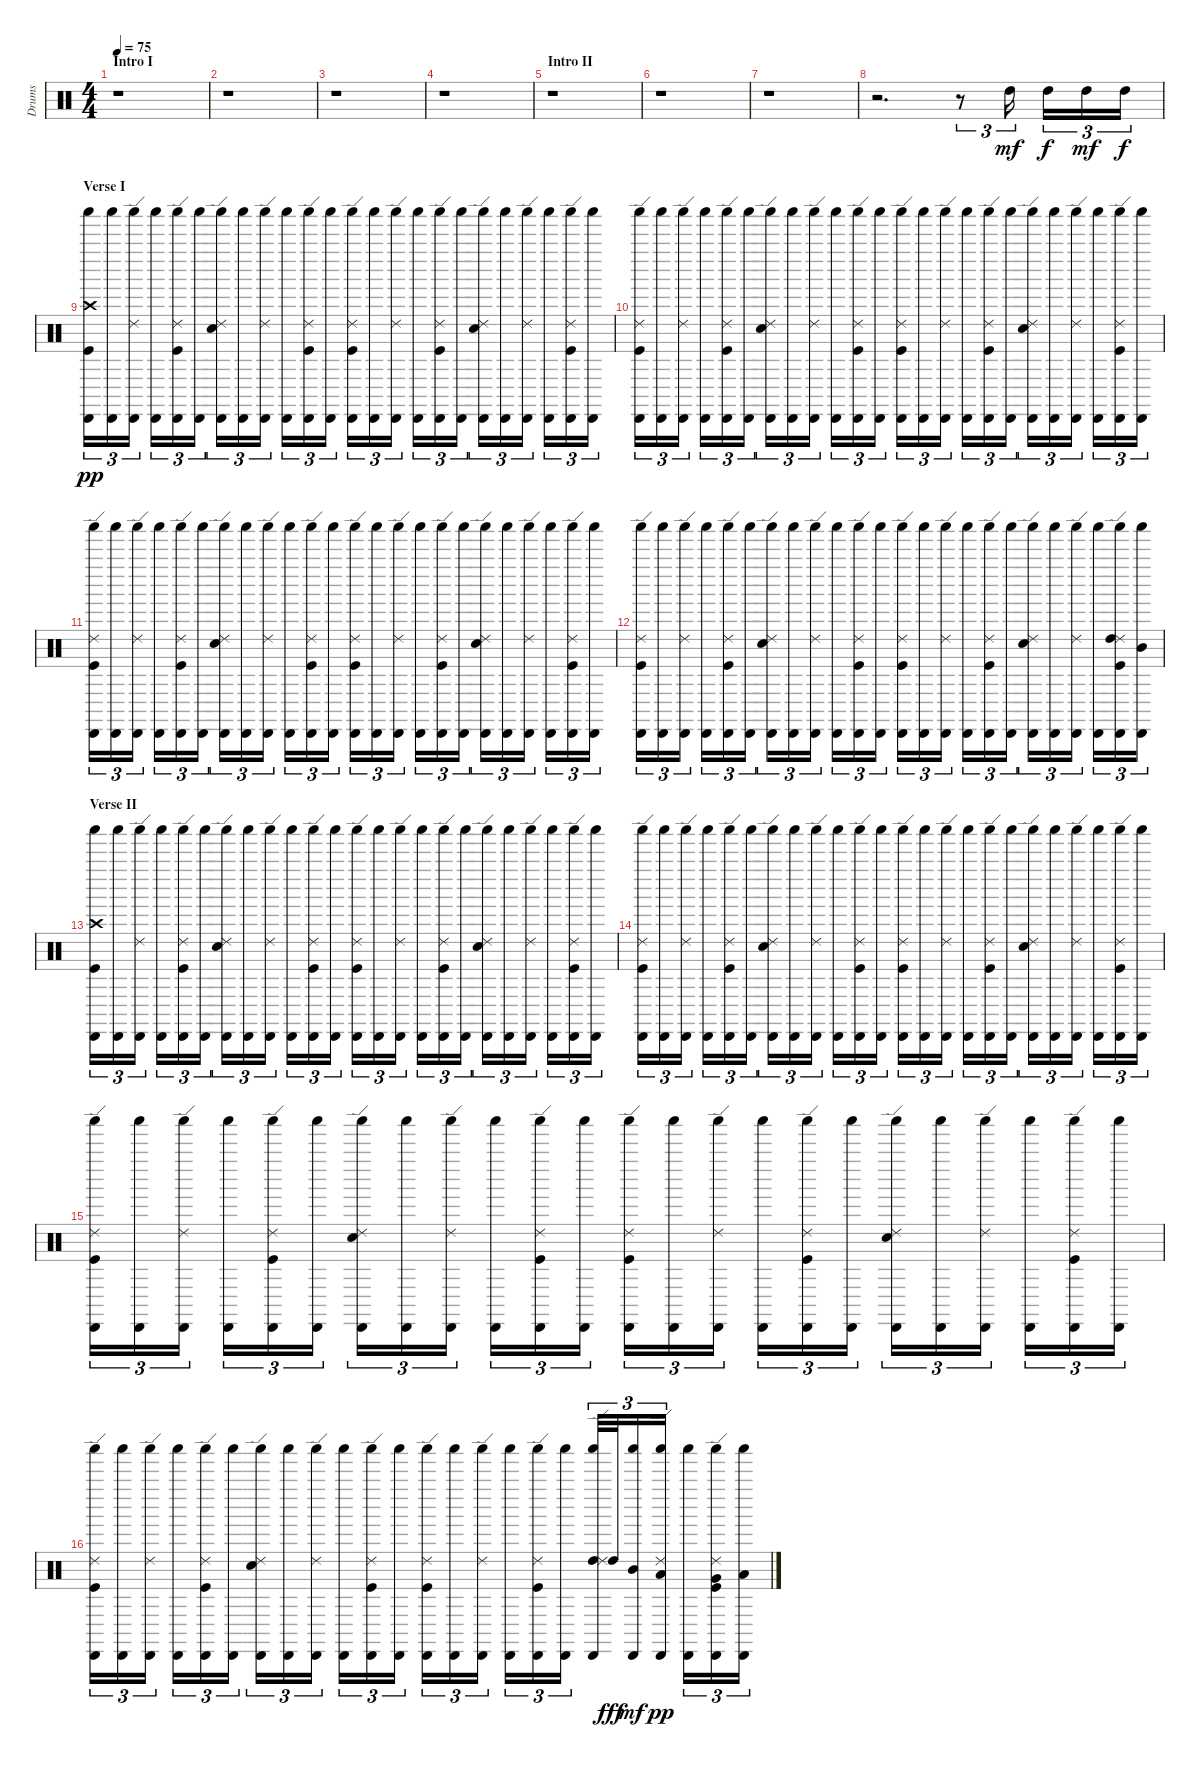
\track ("Drums" "Drums") {instrument percussion}
\staff {score}
\articulation defaults
\ts (4 4)
\section ("" "Intro I")
\tempo 75
\clef neutral
\ks c
r.1{dy mf} |
r.1 |
r.1 |
r.1 |
\section ("" "Intro II")
r.1 |
r.1 |
r.1 |
r.2{d} r.8{tu (3 2)} "High Tom (hit)".16{tu (3 2)} "High Tom (hit)".16{tu (3 2) dy f} "High Tom (hit)".16{tu (3 2) dy mf} "High Tom (hit)".16{tu (3 2) dy f} |
\section ("" "Verse I")
("Crash high (hit)" "Kick (hit)" "Cabasa (hit)" "Shaker (hit)").16{tu (3 2) dy pp} ("Cabasa (hit)" "Shaker (hit)").16{tu (3 2)} ("Ride (edge) 2" "Cabasa (hit)" "Shaker (hit)").16{tu (3 2)} ("Cabasa (hit)" "Shaker (hit)").16{tu (3 2)} ("Cabasa (hit)" "Kick (hit)" "Ride (edge) 2" "Shaker (hit)").16{tu (3 2)} ("Cabasa (hit)" "Shaker (hit)").16{tu (3 2)} ("Cabasa (hit)" "Ride (edge) 2" "Electric Snare (hit)" "Shaker (hit)").16{tu (3 2)} ("Cabasa (hit)" "Shaker (hit)").16{tu (3 2)} ("Ride (edge) 2" "Cabasa (hit)" "Shaker (hit)").16{tu (3 2)} ("Cabasa (hit)" "Shaker (hit)").16{tu (3 2)} ("Cabasa (hit)" "Ride (edge) 2" "Kick (hit)" "Shaker (hit)").16{tu (3 2)} ("Cabasa (hit)" "Shaker (hit)").16{tu (3 2)} ("Kick (hit)" "Ride (edge) 2" "Cabasa (hit)" "Shaker (hit)").16{tu (3 2)} ("Cabasa (hit)" "Shaker (hit)").16{tu (3 2)} ("Cabasa (hit)" "Ride (edge) 2" "Shaker (hit)").16{tu (3 2)} ("Cabasa (hit)" "Shaker (hit)").16{tu (3 2)} ("Kick (hit)" "Cabasa (hit)" "Ride (edge) 2" "Shaker (hit)").16{tu (3 2)} ("Cabasa (hit)" "Shaker (hit)").16{tu (3 2)} ("Electric Snare (hit)" "Cabasa (hit)" "Ride (edge) 2" "Shaker (hit)").16{tu (3 2)} ("Cabasa (hit)" "Shaker (hit)").16{tu (3 2)} ("Cabasa (hit)" "Ride (edge) 2" "Shaker (hit)").16{tu (3 2)} ("Cabasa (hit)" "Shaker (hit)").16{tu (3 2)} ("Cabasa (hit)" "Kick (hit)" "Ride (edge) 2" "Shaker (hit)").16{tu (3 2)} ("Cabasa (hit)" "Shaker (hit)").16{tu (3 2)} |
("Ride (edge) 2" "Kick (hit)" "Cabasa (hit)" "Shaker (hit)").16{tu (3 2)} ("Cabasa (hit)" "Shaker (hit)").16{tu (3 2)} ("Ride (edge) 2" "Cabasa (hit)" "Shaker (hit)").16{tu (3 2)} ("Cabasa (hit)" "Shaker (hit)").16{tu (3 2)} ("Cabasa (hit)" "Kick (hit)" "Ride (edge) 2" "Shaker (hit)").16{tu (3 2)} ("Cabasa (hit)" "Shaker (hit)").16{tu (3 2)} ("Cabasa (hit)" "Ride (edge) 2" "Electric Snare (hit)" "Shaker (hit)").16{tu (3 2)} ("Cabasa (hit)" "Shaker (hit)").16{tu (3 2)} ("Ride (edge) 2" "Cabasa (hit)" "Shaker (hit)").16{tu (3 2)} ("Cabasa (hit)" "Shaker (hit)").16{tu (3 2)} ("Cabasa (hit)" "Ride (edge) 2" "Kick (hit)" "Shaker (hit)").16{tu (3 2)} ("Cabasa (hit)" "Shaker (hit)").16{tu (3 2)} ("Kick (hit)" "Ride (edge) 2" "Cabasa (hit)" "Shaker (hit)").16{tu (3 2)} ("Cabasa (hit)" "Shaker (hit)").16{tu (3 2)} ("Cabasa (hit)" "Ride (edge) 2" "Shaker (hit)").16{tu (3 2)} ("Cabasa (hit)" "Shaker (hit)").16{tu (3 2)} ("Kick (hit)" "Cabasa (hit)" "Ride (edge) 2" "Shaker (hit)").16{tu (3 2)} ("Cabasa (hit)" "Shaker (hit)").16{tu (3 2)} ("Electric Snare (hit)" "Cabasa (hit)" "Ride (edge) 2" "Shaker (hit)").16{tu (3 2)} ("Cabasa (hit)" "Shaker (hit)").16{tu (3 2)} ("Cabasa (hit)" "Ride (edge) 2" "Shaker (hit)").16{tu (3 2)} ("Cabasa (hit)" "Shaker (hit)").16{tu (3 2)} ("Cabasa (hit)" "Kick (hit)" "Ride (edge) 2" "Shaker (hit)").16{tu (3 2)} ("Cabasa (hit)" "Shaker (hit)").16{tu (3 2)} |
("Ride (edge) 2" "Kick (hit)" "Cabasa (hit)" "Shaker (hit)").16{tu (3 2)} ("Cabasa (hit)" "Shaker (hit)").16{tu (3 2)} ("Ride (edge) 2" "Cabasa (hit)" "Shaker (hit)").16{tu (3 2)} ("Cabasa (hit)" "Shaker (hit)").16{tu (3 2)} ("Cabasa (hit)" "Kick (hit)" "Ride (edge) 2" "Shaker (hit)").16{tu (3 2)} ("Cabasa (hit)" "Shaker (hit)").16{tu (3 2)} ("Cabasa (hit)" "Ride (edge) 2" "Electric Snare (hit)" "Shaker (hit)").16{tu (3 2)} ("Cabasa (hit)" "Shaker (hit)").16{tu (3 2)} ("Ride (edge) 2" "Cabasa (hit)" "Shaker (hit)").16{tu (3 2)} ("Cabasa (hit)" "Shaker (hit)").16{tu (3 2)} ("Cabasa (hit)" "Ride (edge) 2" "Kick (hit)" "Shaker (hit)").16{tu (3 2)} ("Cabasa (hit)" "Shaker (hit)").16{tu (3 2)} ("Kick (hit)" "Ride (edge) 2" "Cabasa (hit)" "Shaker (hit)").16{tu (3 2)} ("Cabasa (hit)" "Shaker (hit)").16{tu (3 2)} ("Cabasa (hit)" "Ride (edge) 2" "Shaker (hit)").16{tu (3 2)} ("Cabasa (hit)" "Shaker (hit)").16{tu (3 2)} ("Kick (hit)" "Cabasa (hit)" "Ride (edge) 2" "Shaker (hit)").16{tu (3 2)} ("Cabasa (hit)" "Shaker (hit)").16{tu (3 2)} ("Electric Snare (hit)" "Cabasa (hit)" "Ride (edge) 2" "Shaker (hit)").16{tu (3 2)} ("Cabasa (hit)" "Shaker (hit)").16{tu (3 2)} ("Cabasa (hit)" "Ride (edge) 2" "Shaker (hit)").16{tu (3 2)} ("Cabasa (hit)" "Shaker (hit)").16{tu (3 2)} ("Cabasa (hit)" "Kick (hit)" "Ride (edge) 2" "Shaker (hit)").16{tu (3 2)} ("Cabasa (hit)" "Shaker (hit)").16{tu (3 2)} |
("Ride (edge) 2" "Kick (hit)" "Cabasa (hit)" "Shaker (hit)").16{tu (3 2)} ("Cabasa (hit)" "Shaker (hit)").16{tu (3 2)} ("Ride (edge) 2" "Cabasa (hit)" "Shaker (hit)").16{tu (3 2)} ("Cabasa (hit)" "Shaker (hit)").16{tu (3 2)} ("Cabasa (hit)" "Kick (hit)" "Ride (edge) 2" "Shaker (hit)").16{tu (3 2)} ("Cabasa (hit)" "Shaker (hit)").16{tu (3 2)} ("Cabasa (hit)" "Ride (edge) 2" "Electric Snare (hit)" "Shaker (hit)").16{tu (3 2)} ("Cabasa (hit)" "Shaker (hit)").16{tu (3 2)} ("Ride (edge) 2" "Cabasa (hit)" "Shaker (hit)").16{tu (3 2)} ("Cabasa (hit)" "Shaker (hit)").16{tu (3 2)} ("Cabasa (hit)" "Ride (edge) 2" "Kick (hit)" "Shaker (hit)").16{tu (3 2)} ("Cabasa (hit)" "Shaker (hit)").16{tu (3 2)} ("Kick (hit)" "Ride (edge) 2" "Cabasa (hit)" "Shaker (hit)").16{tu (3 2)} ("Cabasa (hit)" "Shaker (hit)").16{tu (3 2)} ("Cabasa (hit)" "Ride (edge) 2" "Shaker (hit)").16{tu (3 2)} ("Cabasa (hit)" "Shaker (hit)").16{tu (3 2)} ("Kick (hit)" "Cabasa (hit)" "Ride (edge) 2" "Shaker (hit)").16{tu (3 2)} ("Cabasa (hit)" "Shaker (hit)").16{tu (3 2)} ("Electric Snare (hit)" "Cabasa (hit)" "Ride (edge) 2" "Shaker (hit)").16{tu (3 2)} ("Cabasa (hit)" "Shaker (hit)").16{tu (3 2)} ("Cabasa (hit)" "Ride (edge) 2" "Shaker (hit)").16{tu (3 2)} ("Cabasa (hit)" "Shaker (hit)").16{tu (3 2)} ("Cabasa (hit)" "Kick (hit)" "Ride (edge) 2" "Shaker (hit)" "High Tom (hit)").16{tu (3 2)} ("Cabasa (hit)" "Shaker (hit)" "Mid Tom (hit)").16{tu (3 2)} |
\section ("" "Verse II")
("Crash high (hit)" "Kick (hit)" "Cabasa (hit)" "Shaker (hit)").16{tu (3 2)} ("Cabasa (hit)" "Shaker (hit)").16{tu (3 2)} ("Ride (edge) 2" "Cabasa (hit)" "Shaker (hit)").16{tu (3 2)} ("Cabasa (hit)" "Shaker (hit)").16{tu (3 2)} ("Cabasa (hit)" "Kick (hit)" "Ride (edge) 2" "Shaker (hit)").16{tu (3 2)} ("Cabasa (hit)" "Shaker (hit)").16{tu (3 2)} ("Cabasa (hit)" "Ride (edge) 2" "Electric Snare (hit)" "Shaker (hit)").16{tu (3 2)} ("Cabasa (hit)" "Shaker (hit)").16{tu (3 2)} ("Ride (edge) 2" "Cabasa (hit)" "Shaker (hit)").16{tu (3 2)} ("Cabasa (hit)" "Shaker (hit)").16{tu (3 2)} ("Cabasa (hit)" "Ride (edge) 2" "Kick (hit)" "Shaker (hit)").16{tu (3 2)} ("Cabasa (hit)" "Shaker (hit)").16{tu (3 2)} ("Kick (hit)" "Ride (edge) 2" "Cabasa (hit)" "Shaker (hit)").16{tu (3 2)} ("Cabasa (hit)" "Shaker (hit)").16{tu (3 2)} ("Cabasa (hit)" "Ride (edge) 2" "Shaker (hit)").16{tu (3 2)} ("Cabasa (hit)" "Shaker (hit)").16{tu (3 2)} ("Kick (hit)" "Cabasa (hit)" "Ride (edge) 2" "Shaker (hit)").16{tu (3 2)} ("Cabasa (hit)" "Shaker (hit)").16{tu (3 2)} ("Electric Snare (hit)" "Cabasa (hit)" "Ride (edge) 2" "Shaker (hit)").16{tu (3 2)} ("Cabasa (hit)" "Shaker (hit)").16{tu (3 2)} ("Cabasa (hit)" "Ride (edge) 2" "Shaker (hit)").16{tu (3 2)} ("Cabasa (hit)" "Shaker (hit)").16{tu (3 2)} ("Cabasa (hit)" "Kick (hit)" "Ride (edge) 2" "Shaker (hit)").16{tu (3 2)} ("Cabasa (hit)" "Shaker (hit)").16{tu (3 2)} |
("Ride (edge) 2" "Kick (hit)" "Cabasa (hit)" "Shaker (hit)").16{tu (3 2)} ("Cabasa (hit)" "Shaker (hit)").16{tu (3 2)} ("Ride (edge) 2" "Cabasa (hit)" "Shaker (hit)").16{tu (3 2)} ("Cabasa (hit)" "Shaker (hit)").16{tu (3 2)} ("Cabasa (hit)" "Kick (hit)" "Ride (edge) 2" "Shaker (hit)").16{tu (3 2)} ("Cabasa (hit)" "Shaker (hit)").16{tu (3 2)} ("Cabasa (hit)" "Ride (edge) 2" "Electric Snare (hit)" "Shaker (hit)").16{tu (3 2)} ("Cabasa (hit)" "Shaker (hit)").16{tu (3 2)} ("Ride (edge) 2" "Cabasa (hit)" "Shaker (hit)").16{tu (3 2)} ("Cabasa (hit)" "Shaker (hit)").16{tu (3 2)} ("Cabasa (hit)" "Ride (edge) 2" "Kick (hit)" "Shaker (hit)").16{tu (3 2)} ("Cabasa (hit)" "Shaker (hit)").16{tu (3 2)} ("Kick (hit)" "Ride (edge) 2" "Cabasa (hit)" "Shaker (hit)").16{tu (3 2)} ("Cabasa (hit)" "Shaker (hit)").16{tu (3 2)} ("Cabasa (hit)" "Ride (edge) 2" "Shaker (hit)").16{tu (3 2)} ("Cabasa (hit)" "Shaker (hit)").16{tu (3 2)} ("Kick (hit)" "Cabasa (hit)" "Ride (edge) 2" "Shaker (hit)").16{tu (3 2)} ("Cabasa (hit)" "Shaker (hit)").16{tu (3 2)} ("Electric Snare (hit)" "Cabasa (hit)" "Ride (edge) 2" "Shaker (hit)").16{tu (3 2)} ("Cabasa (hit)" "Shaker (hit)").16{tu (3 2)} ("Cabasa (hit)" "Ride (edge) 2" "Shaker (hit)").16{tu (3 2)} ("Cabasa (hit)" "Shaker (hit)").16{tu (3 2)} ("Cabasa (hit)" "Kick (hit)" "Ride (edge) 2" "Shaker (hit)").16{tu (3 2)} ("Cabasa (hit)" "Shaker (hit)").16{tu (3 2)} |
("Ride (edge) 2" "Kick (hit)" "Cabasa (hit)" "Shaker (hit)").16{tu (3 2)} ("Cabasa (hit)" "Shaker (hit)").16{tu (3 2)} ("Ride (edge) 2" "Cabasa (hit)" "Shaker (hit)").16{tu (3 2)} ("Cabasa (hit)" "Shaker (hit)").16{tu (3 2)} ("Cabasa (hit)" "Kick (hit)" "Ride (edge) 2" "Shaker (hit)").16{tu (3 2)} ("Cabasa (hit)" "Shaker (hit)").16{tu (3 2)} ("Cabasa (hit)" "Ride (edge) 2" "Electric Snare (hit)" "Shaker (hit)").16{tu (3 2)} ("Cabasa (hit)" "Shaker (hit)").16{tu (3 2)} ("Ride (edge) 2" "Cabasa (hit)" "Shaker (hit)").16{tu (3 2)} ("Cabasa (hit)" "Shaker (hit)").16{tu (3 2)} ("Cabasa (hit)" "Ride (edge) 2" "Kick (hit)" "Shaker (hit)").16{tu (3 2)} ("Cabasa (hit)" "Shaker (hit)").16{tu (3 2)} ("Kick (hit)" "Ride (edge) 2" "Cabasa (hit)" "Shaker (hit)").16{tu (3 2)} ("Cabasa (hit)" "Shaker (hit)").16{tu (3 2)} ("Cabasa (hit)" "Ride (edge) 2" "Shaker (hit)").16{tu (3 2)} ("Cabasa (hit)" "Shaker (hit)").16{tu (3 2)} ("Kick (hit)" "Cabasa (hit)" "Ride (edge) 2" "Shaker (hit)").16{tu (3 2)} ("Cabasa (hit)" "Shaker (hit)").16{tu (3 2)} ("Electric Snare (hit)" "Cabasa (hit)" "Ride (edge) 2" "Shaker (hit)").16{tu (3 2)} ("Cabasa (hit)" "Shaker (hit)").16{tu (3 2)} ("Cabasa (hit)" "Ride (edge) 2" "Shaker (hit)").16{tu (3 2)} ("Cabasa (hit)" "Shaker (hit)").16{tu (3 2)} ("Cabasa (hit)" "Kick (hit)" "Ride (edge) 2" "Shaker (hit)").16{tu (3 2)} ("Cabasa (hit)" "Shaker (hit)").16{tu (3 2)} |
("Cabasa (hit)" "Kick (hit)" "Ride (edge) 2" "Shaker (hit)").16{tu (3 2)} ("Cabasa (hit)" "Shaker (hit)").16{tu (3 2)} ("Cabasa (hit)" "Ride (edge) 2" "Shaker (hit)").16{tu (3 2)} ("Cabasa (hit)" "Shaker (hit)").16{tu (3 2)} ("Ride (edge) 2" "Kick (hit)" "Cabasa (hit)" "Shaker (hit)").16{tu (3 2)} ("Cabasa (hit)" "Shaker (hit)").16{tu (3 2)} ("Ride (edge) 2" "Electric Snare (hit)" "Cabasa (hit)" "Shaker (hit)").16{tu (3 2)} ("Cabasa (hit)" "Shaker (hit)").16{tu (3 2)} ("Cabasa (hit)" "Ride (edge) 2" "Shaker (hit)").16{tu (3 2)} ("Cabasa (hit)" "Shaker (hit)").16{tu (3 2)} ("Ride (edge) 2" "Cabasa (hit)" "Kick (hit)" "Shaker (hit)").16{tu (3 2)} ("Cabasa (hit)" "Shaker (hit)").16{tu (3 2)} ("Cabasa (hit)" "Kick (hit)" "Ride (edge) 2" "Shaker (hit)").16{tu (3 2)} ("Cabasa (hit)" "Shaker (hit)").16{tu (3 2)} ("Cabasa (hit)" "Ride (edge) 2" "Shaker (hit)").16{tu (3 2)} ("Cabasa (hit)" "Shaker (hit)").16{tu (3 2)} ("Cabasa (hit)" "Ride (edge) 2" "Kick (hit)" "Shaker (hit)").16{tu (3 2)} ("Cabasa (hit)" "Shaker (hit)").16{tu (3 2)} ("High Tom (hit)" "Ride (edge) 2" "Cabasa (hit)" "Shaker (hit)").32{tu (3 2)} "High Tom (hit)".32{tu (3 2) dy fff} ("Cabasa (hit)" "Shaker (hit)" "Mid Tom (hit)").16{tu (3 2) dy mf} ("Ride (edge) 2" "Cabasa (hit)" "Shaker (hit)" "Low Tom (hit)").16{tu (3 2) dy pp} ("Cabasa (hit)" "Shaker (hit)").16{tu (3 2)} ("Very Low Tom (hit)" "Kick (hit)" "Cabasa (hit)" "Ride (edge) 2" "Shaker (hit)").16{tu (3 2)} ("Low Floor Tom (hit)" "Cabasa (hit)" "Shaker (hit)").16{tu (3 2)}
